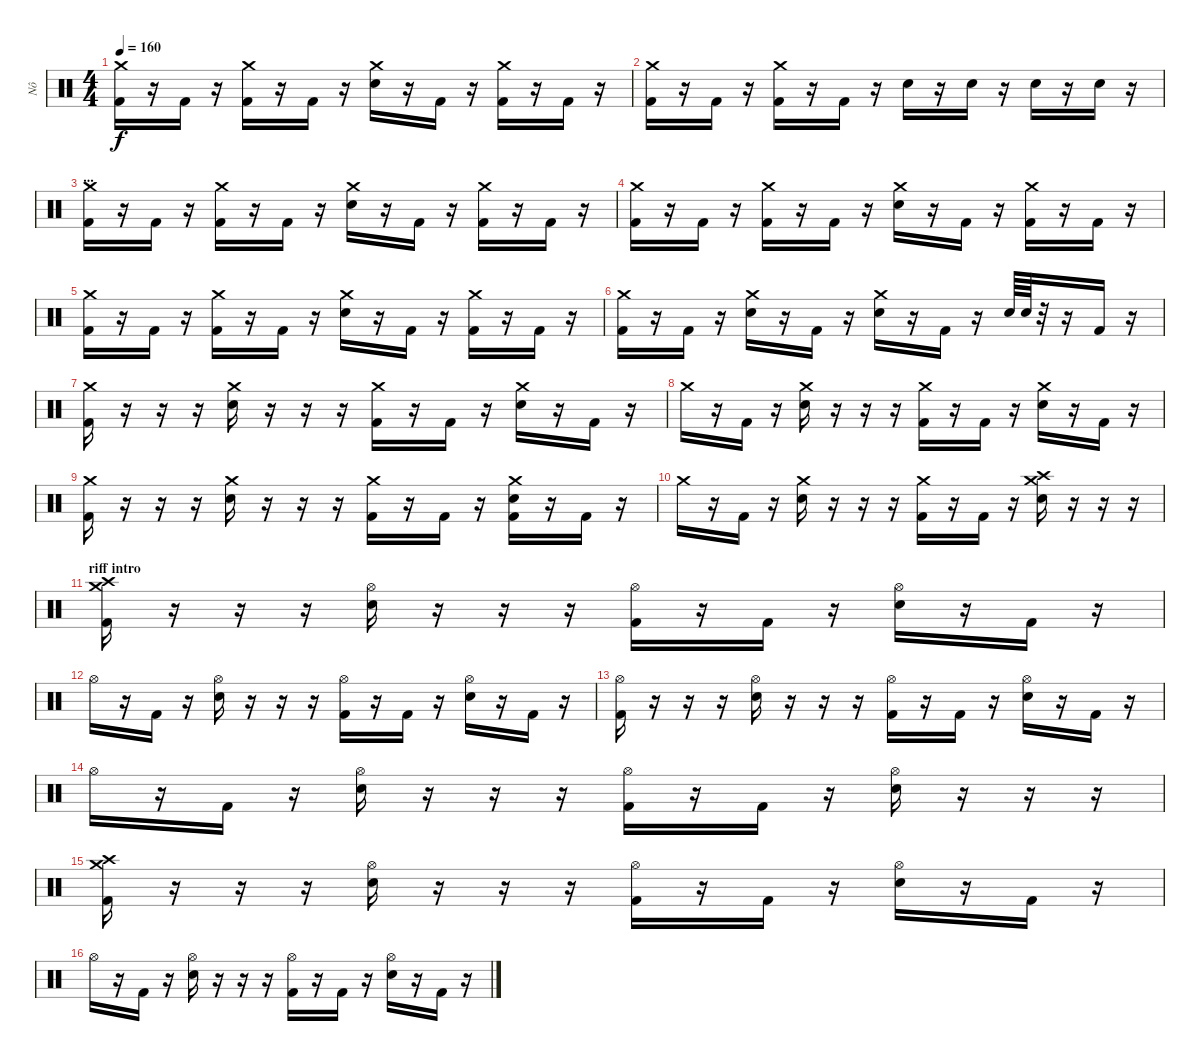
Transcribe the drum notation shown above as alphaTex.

\track ("Nô" "Nô") {instrument percussion}
\staff {score}
\articulation defaults
\ts (4 4)
\tempo 160
\clef neutral
\ks c
("Crash medium (hit)" "Kick (hit) 2").16{dy f} r.16 "Kick (hit) 2".16 r.16 ("Crash medium (hit)" "Kick (hit) 2").16 r.16 "Kick (hit) 2".16 r.16 ("Crash medium (hit)" "Electric Snare (hit)").16 r.16 "Kick (hit) 2".16 r.16 ("Crash medium (hit)" "Kick (hit) 2").16 r.16 "Kick (hit) 2".16 r.16 |
("Crash medium (hit)" "Kick (hit) 2").16 r.16 "Kick (hit) 2".16 r.16 ("Crash medium (hit)" "Kick (hit) 2").16 r.16 "Kick (hit) 2".16 r.16 "Electric Snare (hit)".16 r.16 "Electric Snare (hit)".16 r.16 "Electric Snare (hit)".16 r.16 "Electric Snare (hit)".16 r.16 |
\section ("" "...")
("Crash medium (hit)" "Kick (hit) 2").16 r.16 "Kick (hit) 2".16 r.16 ("Crash medium (hit)" "Kick (hit) 2").16 r.16 "Kick (hit) 2".16 r.16 ("Crash medium (hit)" "Electric Snare (hit)").16 r.16 "Kick (hit) 2".16 r.16 ("Crash medium (hit)" "Kick (hit) 2").16 r.16 "Kick (hit) 2".16 r.16 |
("Crash medium (hit)" "Kick (hit) 2").16 r.16 "Kick (hit) 2".16 r.16 ("Crash medium (hit)" "Kick (hit) 2").16 r.16 "Kick (hit) 2".16 r.16 ("Crash medium (hit)" "Electric Snare (hit)").16 r.16 "Kick (hit) 2".16 r.16 ("Crash medium (hit)" "Kick (hit) 2").16 r.16 "Kick (hit) 2".16 r.16 |
("Crash medium (hit)" "Kick (hit) 2").16 r.16 "Kick (hit) 2".16 r.16 ("Crash medium (hit)" "Kick (hit) 2").16 r.16 "Kick (hit) 2".16 r.16 ("Crash medium (hit)" "Electric Snare (hit)").16 r.16 "Kick (hit) 2".16 r.16 ("Crash medium (hit)" "Kick (hit) 2").16 r.16 "Kick (hit) 2".16 r.16 |
("Crash medium (hit)" "Kick (hit) 2").16 r.16 "Kick (hit) 2".16 r.16 ("Crash medium (hit)" "Electric Snare (hit)").16 r.16 "Kick (hit) 2".16 r.16 ("Crash medium (hit)" "Electric Snare (hit)").16 r.16 "Kick (hit) 2".16 r.16 "Electric Snare (hit)".64 "Electric Snare (hit)".64 r.32 r.16 "Kick (hit) 2".16 r.16 |
("Crash medium (hit)" "Kick (hit) 2").16 r.16 r.16 r.16 ("Crash medium (hit)" "Electric Snare (hit)").16 r.16 r.16 r.16 ("Crash medium (hit)" "Kick (hit) 2").16 r.16 "Kick (hit) 2".16 r.16 ("Crash medium (hit)" "Electric Snare (hit)").16 r.16 "Kick (hit) 2".16 r.16 |
"Crash medium (hit)".16 r.16 "Kick (hit) 2".16 r.16 ("Crash medium (hit)" "Electric Snare (hit)").16 r.16 r.16 r.16 ("Crash medium (hit)" "Kick (hit) 2").16 r.16 "Kick (hit) 2".16 r.16 ("Crash medium (hit)" "Electric Snare (hit)").16 r.16 "Kick (hit) 2".16 r.16 |
("Crash medium (hit)" "Kick (hit) 2").16 r.16 r.16 r.16 ("Crash medium (hit)" "Electric Snare (hit)").16 r.16 r.16 r.16 ("Crash medium (hit)" "Kick (hit) 2").16 r.16 "Kick (hit) 2".16 r.16 ("Crash medium (hit)" "Electric Snare (hit)" "Kick (hit) 2").16 r.16 "Kick (hit) 2".16 r.16 |
"Crash medium (hit)".16 r.16 "Kick (hit) 2".16 r.16 ("Crash medium (hit)" "Electric Snare (hit)").16 r.16 r.16 r.16 ("Crash medium (hit)" "Kick (hit) 2").16 r.16 "Kick (hit) 2".16 r.16 ("Crash medium (hit)" "Crash high (hit)" "Electric Snare (hit)").16 r.16 r.16 r.16 |
\section ("" "riff intro")
("Crash high (hit)" "Crash medium (hit)" "Kick (hit) 2").16 r.16 r.16 r.16 ("Hi-Hat (open)" "Electric Snare (hit)").16 r.16 r.16 r.16 ("Hi-Hat (open)" "Kick (hit) 2").16 r.16 "Kick (hit) 2".16 r.16 ("Hi-Hat (open)" "Electric Snare (hit)").16 r.16 "Kick (hit) 2".16 r.16 |
"Hi-Hat (open)".16 r.16 "Kick (hit) 2".16 r.16 ("Hi-Hat (open)" "Electric Snare (hit)").16 r.16 r.16 r.16 ("Hi-Hat (open)" "Kick (hit) 2").16 r.16 "Kick (hit) 2".16 r.16 ("Hi-Hat (open)" "Electric Snare (hit)").16 r.16 "Kick (hit) 2".16 r.16 |
("Hi-Hat (open)" "Kick (hit) 2").16 r.16 r.16 r.16 ("Hi-Hat (open)" "Electric Snare (hit)").16 r.16 r.16 r.16 ("Hi-Hat (open)" "Kick (hit) 2").16 r.16 "Kick (hit) 2".16 r.16 ("Hi-Hat (open)" "Electric Snare (hit)").16 r.16 "Kick (hit) 2".16 r.16 |
"Hi-Hat (open)".16 r.16 "Kick (hit) 2".16 r.16 ("Hi-Hat (open)" "Electric Snare (hit)").16 r.16 r.16 r.16 ("Hi-Hat (open)" "Kick (hit) 2").16 r.16 "Kick (hit) 2".16 r.16 ("Hi-Hat (open)" "Electric Snare (hit)").16 r.16 r.16 r.16 |
("Crash high (hit)" "Crash medium (hit)" "Kick (hit) 2").16 r.16 r.16 r.16 ("Hi-Hat (open)" "Electric Snare (hit)").16 r.16 r.16 r.16 ("Hi-Hat (open)" "Kick (hit) 2").16 r.16 "Kick (hit) 2".16 r.16 ("Hi-Hat (open)" "Electric Snare (hit)").16 r.16 "Kick (hit) 2".16 r.16 |
"Hi-Hat (open)".16 r.16 "Kick (hit) 2".16 r.16 ("Hi-Hat (open)" "Electric Snare (hit)").16 r.16 r.16 r.16 ("Hi-Hat (open)" "Kick (hit) 2").16 r.16 "Kick (hit) 2".16 r.16 ("Hi-Hat (open)" "Electric Snare (hit)").16 r.16 "Kick (hit) 2".16 r.16
